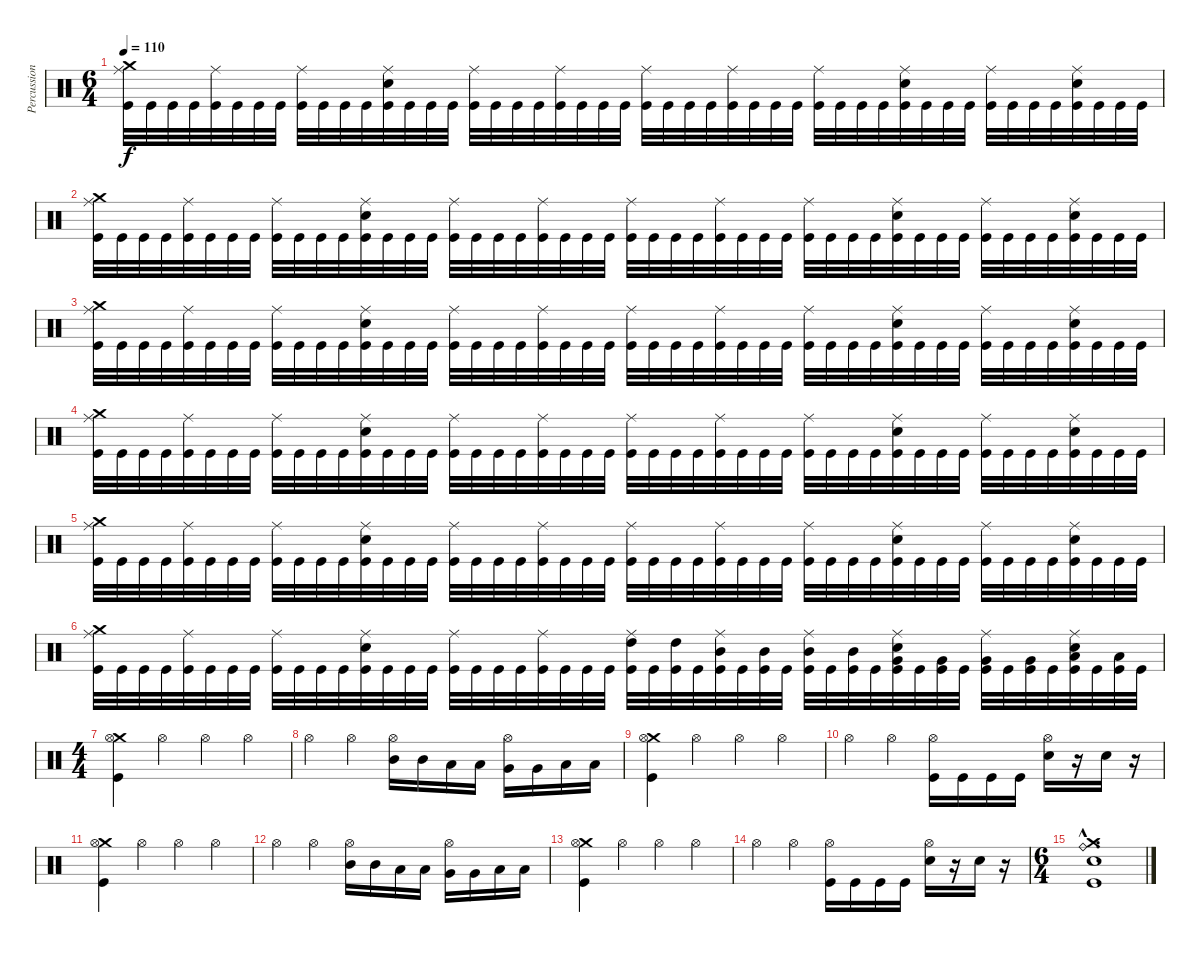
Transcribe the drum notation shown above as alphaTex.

\track ("Percussion" "Percussion") {instrument percussion}
\staff {score}
\articulation defaults
\ts (6 4)
\tempo 110
\clef neutral
\ks c
("Crash medium (hit)" "Ride (middle)" "Kick (hit)").32{dy f} "Kick (hit)".32 "Kick (hit)".32 "Kick (hit)".32 ("Ride (middle)" "Kick (hit)").32 "Kick (hit)".32 "Kick (hit)".32 "Kick (hit)".32 ("Ride (middle)" "Kick (hit)").32 "Kick (hit)".32 "Kick (hit)".32 "Kick (hit)".32 ("Ride (middle)" "Electric Snare (hit)" "Kick (hit)").32 "Kick (hit)".32 "Kick (hit)".32 "Kick (hit)".32 ("Ride (middle)" "Kick (hit)").32 "Kick (hit)".32 "Kick (hit)".32 "Kick (hit)".32 ("Ride (middle)" "Kick (hit)").32 "Kick (hit)".32 "Kick (hit)".32 "Kick (hit)".32 ("Ride (middle)" "Kick (hit)").32 "Kick (hit)".32 "Kick (hit)".32 "Kick (hit)".32 ("Ride (middle)" "Kick (hit)").32 "Kick (hit)".32 "Kick (hit)".32 "Kick (hit)".32 ("Ride (middle)" "Kick (hit)").32 "Kick (hit)".32 "Kick (hit)".32 "Kick (hit)".32 ("Ride (middle)" "Electric Snare (hit)" "Kick (hit)").32 "Kick (hit)".32 "Kick (hit)".32 "Kick (hit)".32 ("Ride (middle)" "Kick (hit)").32 "Kick (hit)".32 "Kick (hit)".32 "Kick (hit)".32 ("Ride (middle)" "Electric Snare (hit)" "Kick (hit)").32 "Kick (hit)".32 "Kick (hit)".32 "Kick (hit)".32 |
("Crash medium (hit)" "Ride (middle)" "Kick (hit)").32 "Kick (hit)".32 "Kick (hit)".32 "Kick (hit)".32 ("Ride (middle)" "Kick (hit)").32 "Kick (hit)".32 "Kick (hit)".32 "Kick (hit)".32 ("Ride (middle)" "Kick (hit)").32 "Kick (hit)".32 "Kick (hit)".32 "Kick (hit)".32 ("Ride (middle)" "Electric Snare (hit)" "Kick (hit)").32 "Kick (hit)".32 "Kick (hit)".32 "Kick (hit)".32 ("Ride (middle)" "Kick (hit)").32 "Kick (hit)".32 "Kick (hit)".32 "Kick (hit)".32 ("Ride (middle)" "Kick (hit)").32 "Kick (hit)".32 "Kick (hit)".32 "Kick (hit)".32 ("Ride (middle)" "Kick (hit)").32 "Kick (hit)".32 "Kick (hit)".32 "Kick (hit)".32 ("Ride (middle)" "Kick (hit)").32 "Kick (hit)".32 "Kick (hit)".32 "Kick (hit)".32 ("Ride (middle)" "Kick (hit)").32 "Kick (hit)".32 "Kick (hit)".32 "Kick (hit)".32 ("Ride (middle)" "Electric Snare (hit)" "Kick (hit)").32 "Kick (hit)".32 "Kick (hit)".32 "Kick (hit)".32 ("Ride (middle)" "Kick (hit)").32 "Kick (hit)".32 "Kick (hit)".32 "Kick (hit)".32 ("Ride (middle)" "Electric Snare (hit)" "Kick (hit)").32 "Kick (hit)".32 "Kick (hit)".32 "Kick (hit)".32 |
("Crash medium (hit)" "Ride (middle)" "Kick (hit)").32 "Kick (hit)".32 "Kick (hit)".32 "Kick (hit)".32 ("Ride (middle)" "Kick (hit)").32 "Kick (hit)".32 "Kick (hit)".32 "Kick (hit)".32 ("Ride (middle)" "Kick (hit)").32 "Kick (hit)".32 "Kick (hit)".32 "Kick (hit)".32 ("Ride (middle)" "Electric Snare (hit)" "Kick (hit)").32 "Kick (hit)".32 "Kick (hit)".32 "Kick (hit)".32 ("Ride (middle)" "Kick (hit)").32 "Kick (hit)".32 "Kick (hit)".32 "Kick (hit)".32 ("Ride (middle)" "Kick (hit)").32 "Kick (hit)".32 "Kick (hit)".32 "Kick (hit)".32 ("Ride (middle)" "Kick (hit)").32 "Kick (hit)".32 "Kick (hit)".32 "Kick (hit)".32 ("Ride (middle)" "Kick (hit)").32 "Kick (hit)".32 "Kick (hit)".32 "Kick (hit)".32 ("Ride (middle)" "Kick (hit)").32 "Kick (hit)".32 "Kick (hit)".32 "Kick (hit)".32 ("Ride (middle)" "Electric Snare (hit)" "Kick (hit)").32 "Kick (hit)".32 "Kick (hit)".32 "Kick (hit)".32 ("Ride (middle)" "Kick (hit)").32 "Kick (hit)".32 "Kick (hit)".32 "Kick (hit)".32 ("Ride (middle)" "Electric Snare (hit)" "Kick (hit)").32 "Kick (hit)".32 "Kick (hit)".32 "Kick (hit)".32 |
("Crash medium (hit)" "Ride (middle)" "Kick (hit)").32 "Kick (hit)".32 "Kick (hit)".32 "Kick (hit)".32 ("Ride (middle)" "Kick (hit)").32 "Kick (hit)".32 "Kick (hit)".32 "Kick (hit)".32 ("Ride (middle)" "Kick (hit)").32 "Kick (hit)".32 "Kick (hit)".32 "Kick (hit)".32 ("Ride (middle)" "Electric Snare (hit)" "Kick (hit)").32 "Kick (hit)".32 "Kick (hit)".32 "Kick (hit)".32 ("Ride (middle)" "Kick (hit)").32 "Kick (hit)".32 "Kick (hit)".32 "Kick (hit)".32 ("Ride (middle)" "Kick (hit)").32 "Kick (hit)".32 "Kick (hit)".32 "Kick (hit)".32 ("Ride (middle)" "Kick (hit)").32 "Kick (hit)".32 "Kick (hit)".32 "Kick (hit)".32 ("Ride (middle)" "Kick (hit)").32 "Kick (hit)".32 "Kick (hit)".32 "Kick (hit)".32 ("Ride (middle)" "Kick (hit)").32 "Kick (hit)".32 "Kick (hit)".32 "Kick (hit)".32 ("Ride (middle)" "Electric Snare (hit)" "Kick (hit)").32 "Kick (hit)".32 "Kick (hit)".32 "Kick (hit)".32 ("Ride (middle)" "Kick (hit)").32 "Kick (hit)".32 "Kick (hit)".32 "Kick (hit)".32 ("Ride (middle)" "Electric Snare (hit)" "Kick (hit)").32 "Kick (hit)".32 "Kick (hit)".32 "Kick (hit)".32 |
("Crash medium (hit)" "Ride (middle)" "Kick (hit)").32 "Kick (hit)".32 "Kick (hit)".32 "Kick (hit)".32 ("Ride (middle)" "Kick (hit)").32 "Kick (hit)".32 "Kick (hit)".32 "Kick (hit)".32 ("Ride (middle)" "Kick (hit)").32 "Kick (hit)".32 "Kick (hit)".32 "Kick (hit)".32 ("Ride (middle)" "Electric Snare (hit)" "Kick (hit)").32 "Kick (hit)".32 "Kick (hit)".32 "Kick (hit)".32 ("Ride (middle)" "Kick (hit)").32 "Kick (hit)".32 "Kick (hit)".32 "Kick (hit)".32 ("Ride (middle)" "Kick (hit)").32 "Kick (hit)".32 "Kick (hit)".32 "Kick (hit)".32 ("Ride (middle)" "Kick (hit)").32 "Kick (hit)".32 "Kick (hit)".32 "Kick (hit)".32 ("Ride (middle)" "Kick (hit)").32 "Kick (hit)".32 "Kick (hit)".32 "Kick (hit)".32 ("Ride (middle)" "Kick (hit)").32 "Kick (hit)".32 "Kick (hit)".32 "Kick (hit)".32 ("Ride (middle)" "Electric Snare (hit)" "Kick (hit)").32 "Kick (hit)".32 "Kick (hit)".32 "Kick (hit)".32 ("Ride (middle)" "Kick (hit)").32 "Kick (hit)".32 "Kick (hit)".32 "Kick (hit)".32 ("Ride (middle)" "Electric Snare (hit)" "Kick (hit)").32 "Kick (hit)".32 "Kick (hit)".32 "Kick (hit)".32 |
("Crash medium (hit)" "Ride (middle)" "Kick (hit)").32 "Kick (hit)".32 "Kick (hit)".32 "Kick (hit)".32 ("Ride (middle)" "Kick (hit)").32 "Kick (hit)".32 "Kick (hit)".32 "Kick (hit)".32 ("Ride (middle)" "Kick (hit)").32 "Kick (hit)".32 "Kick (hit)".32 "Kick (hit)".32 ("Ride (middle)" "Electric Snare (hit)" "Kick (hit)").32 "Kick (hit)".32 "Kick (hit)".32 "Kick (hit)".32 ("Ride (middle)" "Kick (hit)").32 "Kick (hit)".32 "Kick (hit)".32 "Kick (hit)".32 ("Ride (middle)" "Kick (hit)").32 "Kick (hit)".32 "Kick (hit)".32 "Kick (hit)".32 ("High Tom (hit)" "Ride (middle)" "Kick (hit)").32 "Kick (hit)".32 ("High Tom (hit)" "Kick (hit)").32 "Kick (hit)".32 ("Mid Tom (hit)" "Ride (middle)" "Kick (hit)").32 "Kick (hit)".32 ("Mid Tom (hit)" "Kick (hit)").32 "Kick (hit)".32 ("Mid Tom (hit)" "Ride (middle)" "Kick (hit)").32 "Kick (hit)".32 ("Mid Tom (hit)" "Kick (hit)").32 "Kick (hit)".32 ("Very Low Tom (hit)" "Ride (middle)" "Electric Snare (hit)" "Kick (hit)").32 "Kick (hit)".32 ("Very Low Tom (hit)" "Kick (hit)").32 "Kick (hit)".32 ("Very Low Tom (hit)" "Ride (middle)" "Kick (hit)").32 "Kick (hit)".32 ("Very Low Tom (hit)" "Kick (hit)").32 "Kick (hit)".32 ("Low Floor Tom (hit)" "Ride (middle)" "Electric Snare (hit)" "Kick (hit)").32 "Kick (hit)".32 ("Low Floor Tom (hit)" "Kick (hit)").32 "Kick (hit)".32 |
\ts (4 4)
("Crash medium (hit)" "Hi-Hat (open)" "Kick (hit)").4 "Hi-Hat (open)".4 "Hi-Hat (open)".4 "Hi-Hat (open)".4 |
"Hi-Hat (open)".4 "Hi-Hat (open)".4 ("Mid Tom (hit)" "Hi-Hat (open)").16 "Mid Tom (hit)".16 "Low Tom (hit)".16 "Low Tom (hit)".16 ("Very Low Tom (hit)" "Hi-Hat (open)").16 "Very Low Tom (hit)".16 "Low Floor Tom (hit)".16 "Low Floor Tom (hit)".16 |
("Crash medium (hit)" "Hi-Hat (open)" "Kick (hit)").4 "Hi-Hat (open)".4 "Hi-Hat (open)".4 "Hi-Hat (open)".4 |
"Hi-Hat (open)".4 "Hi-Hat (open)".4 ("Hi-Hat (open)" "Kick (hit)").16 "Kick (hit)".16 "Kick (hit)".16 "Kick (hit)".16 ("Electric Snare (hit)" "Hi-Hat (open)").16 r.16 "Electric Snare (hit)".16 r.16 |
("Crash medium (hit)" "Hi-Hat (open)" "Kick (hit)").4 "Hi-Hat (open)".4 "Hi-Hat (open)".4 "Hi-Hat (open)".4 |
"Hi-Hat (open)".4 "Hi-Hat (open)".4 ("Mid Tom (hit)" "Hi-Hat (open)").16 "Mid Tom (hit)".16 "Low Tom (hit)".16 "Low Tom (hit)".16 ("Very Low Tom (hit)" "Hi-Hat (open)").16 "Very Low Tom (hit)".16 "Low Floor Tom (hit)".16 "Low Floor Tom (hit)".16 |
("Crash medium (hit)" "Hi-Hat (open)" "Kick (hit)").4 "Hi-Hat (open)".4 "Hi-Hat (open)".4 "Hi-Hat (open)".4 |
"Hi-Hat (open)".4 "Hi-Hat (open)".4 ("Hi-Hat (open)" "Kick (hit)").16 "Kick (hit)".16 "Kick (hit)".16 "Kick (hit)".16 ("Electric Snare (hit)" "Hi-Hat (open)").16 r.16 "Electric Snare (hit)".16 r.16 |
\ts (6 4)
("Crash medium (hit)"{hac} "Ride (bell)"{hac} "Electric Snare (hit)"{hac} "Kick (hit)"{hac}).1{d}
